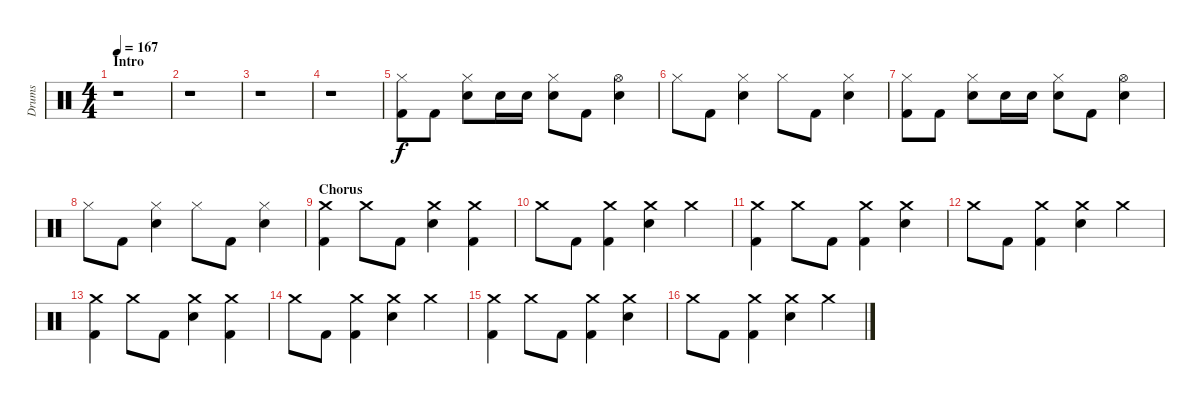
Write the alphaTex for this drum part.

\track ("Drums" "Drums") {instrument percussion}
\staff {score}
\articulation defaults
\ts (4 4)
\section ("" "Intro")
\tempo 167
\clef neutral
\ks c
r.1{dy f} |
r.1 |
r.1 |
r.1 |
("Hi-Hat (closed)" "Kick (hit) 2").8 "Kick (hit) 2".8 ("Hi-Hat (closed)" "Electric Snare (hit)").8 "Electric Snare (hit)".16 "Electric Snare (hit)".16 ("Hi-Hat (closed)" "Electric Snare (hit)").8 "Kick (hit) 2".8 ("Hi-Hat (open)" "Electric Snare (hit)").4 |
"Hi-Hat (closed)".8 "Kick (hit) 2".8 ("Hi-Hat (closed)" "Electric Snare (hit)").4 "Hi-Hat (closed)".8 "Kick (hit) 2".8 ("Hi-Hat (closed)" "Electric Snare (hit)").4 |
("Hi-Hat (closed)" "Kick (hit) 2").8 "Kick (hit) 2".8 ("Hi-Hat (closed)" "Electric Snare (hit)").8 "Electric Snare (hit)".16 "Electric Snare (hit)".16 ("Hi-Hat (closed)" "Electric Snare (hit)").8 "Kick (hit) 2".8 ("Hi-Hat (open)" "Electric Snare (hit)").4 |
"Hi-Hat (closed)".8 "Kick (hit) 2".8 ("Hi-Hat (closed)" "Electric Snare (hit)").4 "Hi-Hat (closed)".8 "Kick (hit) 2".8 ("Hi-Hat (closed)" "Electric Snare (hit)").4 |
\section ("" "Chorus")
("Crash medium (hit)" "Kick (hit) 2").4 "Crash medium (hit)".8 "Kick (hit) 2".8 ("Crash medium (hit)" "Electric Snare (hit)").4 ("Crash medium (hit)" "Kick (hit) 2").4 |
"Crash medium (hit)".8 "Kick (hit) 2".8 ("Crash medium (hit)" "Kick (hit) 2").4 ("Crash medium (hit)" "Electric Snare (hit)").4 "Crash medium (hit)".4 |
("Crash medium (hit)" "Kick (hit) 2").4 "Crash medium (hit)".8 "Kick (hit) 2".8 ("Crash medium (hit)" "Kick (hit) 2").4 ("Crash medium (hit)" "Electric Snare (hit)").4 |
"Crash medium (hit)".8 "Kick (hit) 2".8 ("Crash medium (hit)" "Kick (hit) 2").4 ("Crash medium (hit)" "Electric Snare (hit)").4 "Crash medium (hit)".4 |
("Crash medium (hit)" "Kick (hit) 2").4 "Crash medium (hit)".8 "Kick (hit) 2".8 ("Crash medium (hit)" "Electric Snare (hit)").4 ("Crash medium (hit)" "Kick (hit) 2").4 |
"Crash medium (hit)".8 "Kick (hit) 2".8 ("Crash medium (hit)" "Kick (hit) 2").4 ("Crash medium (hit)" "Electric Snare (hit)").4 "Crash medium (hit)".4 |
("Crash medium (hit)" "Kick (hit) 2").4 "Crash medium (hit)".8 "Kick (hit) 2".8 ("Crash medium (hit)" "Kick (hit) 2").4 ("Crash medium (hit)" "Electric Snare (hit)").4 |
"Crash medium (hit)".8 "Kick (hit) 2".8 ("Crash medium (hit)" "Kick (hit) 2").4 ("Crash medium (hit)" "Electric Snare (hit)").4 "Crash medium (hit)".4
